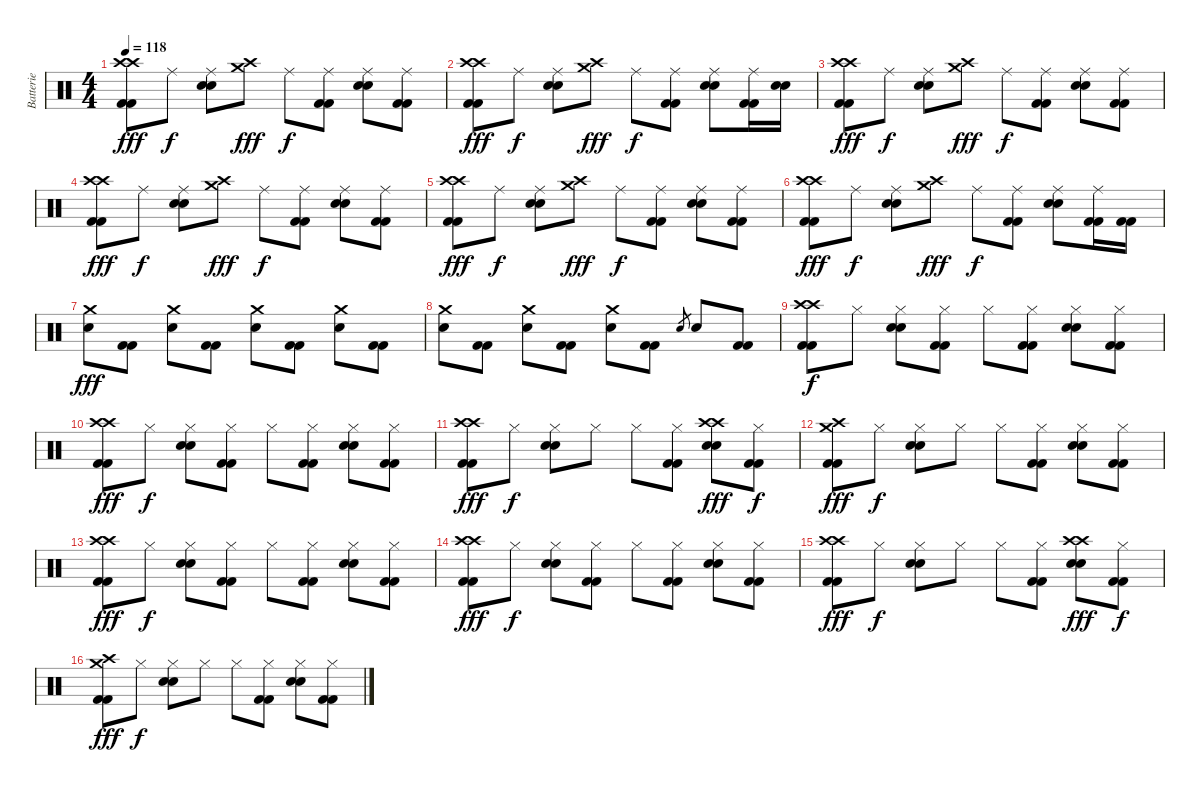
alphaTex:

\track ("Batterie" "Batterie") {instrument percussion}
\staff {score}
\articulation defaults
\ts (4 4)
\tempo 118
\clef neutral
\ks c
("Crash high (hit)" "Crash high (hit)" "Kick (hit) 2" "Kick (hit) 2").8{dy fff} "Ride (middle)".8{dy f} ("Ride (middle)" "Snare (hit) 2" "Snare (hit) 2").8 ("Crash medium (hit)" "Crash high (hit)").8{dy fff} "Ride (middle)".8{dy f} ("Ride (middle)" "Kick (hit) 2" "Kick (hit) 2").8 ("Ride (middle)" "Snare (hit) 2" "Snare (hit) 2").8 ("Ride (middle)" "Kick (hit) 2" "Kick (hit) 2").8 |
("Crash high (hit)" "Crash high (hit)" "Kick (hit) 2" "Kick (hit) 2").8{dy fff} "Ride (middle)".8{dy f} ("Ride (middle)" "Snare (hit) 2" "Snare (hit) 2").8 ("Crash medium (hit)" "Crash high (hit)").8{dy fff} "Ride (middle)".8{dy f} ("Ride (middle)" "Kick (hit) 2" "Kick (hit) 2").8 ("Ride (middle)" "Snare (hit) 2" "Snare (hit) 2").8 ("Ride (middle)" "Kick (hit) 2" "Kick (hit) 2").16 ("Snare (hit) 2" "Snare (hit) 2").16 |
("Crash high (hit)" "Crash high (hit)" "Kick (hit) 2" "Kick (hit) 2").8{dy fff} "Ride (middle)".8{dy f} ("Ride (middle)" "Snare (hit) 2" "Snare (hit) 2").8 ("Crash medium (hit)" "Crash high (hit)").8{dy fff} "Ride (middle)".8{dy f} ("Ride (middle)" "Kick (hit) 2" "Kick (hit) 2").8 ("Ride (middle)" "Snare (hit) 2" "Snare (hit) 2").8 ("Ride (middle)" "Kick (hit) 2" "Kick (hit) 2").8 |
("Crash high (hit)" "Crash high (hit)" "Kick (hit) 2" "Kick (hit) 2").8{dy fff} "Ride (middle)".8{dy f} ("Ride (middle)" "Snare (hit) 2" "Snare (hit) 2").8 ("Crash medium (hit)" "Crash high (hit)").8{dy fff} "Ride (middle)".8{dy f} ("Ride (middle)" "Kick (hit) 2" "Kick (hit) 2").8 ("Ride (middle)" "Snare (hit) 2" "Snare (hit) 2").8 ("Ride (middle)" "Kick (hit) 2" "Kick (hit) 2").8 |
("Crash high (hit)" "Crash high (hit)" "Kick (hit) 2" "Kick (hit) 2").8{dy fff} "Ride (middle)".8{dy f} ("Ride (middle)" "Snare (hit) 2" "Snare (hit) 2").8 ("Crash medium (hit)" "Crash high (hit)").8{dy fff} "Ride (middle)".8{dy f} ("Ride (middle)" "Kick (hit) 2" "Kick (hit) 2").8 ("Ride (middle)" "Snare (hit) 2" "Snare (hit) 2").8 ("Ride (middle)" "Kick (hit) 2" "Kick (hit) 2").8 |
("Crash high (hit)" "Crash high (hit)" "Kick (hit) 2" "Kick (hit) 2").8{dy fff} "Ride (middle)".8{dy f} ("Ride (middle)" "Snare (hit) 2" "Snare (hit) 2").8 ("Crash medium (hit)" "Crash high (hit)").8{dy fff} "Ride (middle)".8{dy f} ("Ride (middle)" "Kick (hit) 2" "Kick (hit) 2").8 ("Ride (middle)" "Snare (hit) 2" "Snare (hit) 2").8 ("Ride (middle)" "Kick (hit) 2" "Kick (hit) 2").16 ("Kick (hit) 2" "Kick (hit) 2").16 |
("Crash medium (hit)" "Snare (hit) 2").8{dy fff} ("Kick (hit) 2" "Kick (hit) 2").8 ("Crash medium (hit)" "Snare (hit) 2").8 ("Kick (hit) 2" "Kick (hit) 2").8 ("Crash medium (hit)" "Snare (hit) 2").8 ("Kick (hit) 2" "Kick (hit) 2").8 ("Crash medium (hit)" "Snare (hit) 2").8 ("Kick (hit) 2" "Kick (hit) 2").8 |
("Crash medium (hit)" "Snare (hit) 2").8 ("Kick (hit) 2" "Kick (hit) 2").8 ("Crash medium (hit)" "Snare (hit) 2").8 ("Kick (hit) 2" "Kick (hit) 2").8 ("Crash medium (hit)" "Snare (hit) 2").8 ("Kick (hit) 2" "Kick (hit) 2").8 "Snare (hit) 2".8{gr} "Snare (hit) 2".8 ("Kick (hit) 2" "Kick (hit) 2").8 |
("Crash high (hit)" "Crash high (hit)" "Kick (hit) 2" "Kick (hit) 2").8{dy f} "Hi-Hat (closed)".8 ("Hi-Hat (closed)" "Snare (hit) 2" "Snare (hit) 2").8 ("Hi-Hat (closed)" "Kick (hit) 2" "Kick (hit) 2").8 "Hi-Hat (closed)".8 ("Hi-Hat (closed)" "Kick (hit) 2" "Kick (hit) 2").8 ("Hi-Hat (closed)" "Snare (hit) 2" "Snare (hit) 2").8 ("Hi-Hat (closed)" "Kick (hit) 2" "Kick (hit) 2").8 |
("Crash high (hit)" "Crash high (hit)" "Kick (hit) 2" "Kick (hit) 2").8{dy fff} "Hi-Hat (closed)".8{dy f} ("Hi-Hat (closed)" "Snare (hit) 2" "Snare (hit) 2").8 ("Hi-Hat (closed)" "Kick (hit) 2" "Kick (hit) 2").8 "Hi-Hat (closed)".8 ("Hi-Hat (closed)" "Kick (hit) 2" "Kick (hit) 2").8 ("Hi-Hat (closed)" "Snare (hit) 2" "Snare (hit) 2").8 ("Hi-Hat (closed)" "Kick (hit) 2" "Kick (hit) 2").8 |
("Crash high (hit)" "Crash high (hit)" "Kick (hit) 2" "Kick (hit) 2").8{dy fff} "Hi-Hat (closed)".8{dy f} ("Hi-Hat (closed)" "Snare (hit) 2" "Snare (hit) 2").8 "Hi-Hat (closed)".8 "Hi-Hat (closed)".8 ("Hi-Hat (closed)" "Kick (hit) 2" "Kick (hit) 2").8 ("Crash high (hit)" "Crash high (hit)" "Snare (hit) 2" "Snare (hit) 2").8{dy fff} ("Hi-Hat (closed)" "Kick (hit) 2" "Kick (hit) 2").8{dy f} |
("Crash medium (hit)" "Crash high (hit)" "Kick (hit) 2" "Kick (hit) 2").8{dy fff} "Hi-Hat (closed)".8{dy f} ("Hi-Hat (closed)" "Snare (hit) 2" "Snare (hit) 2").8 "Hi-Hat (closed)".8 "Hi-Hat (closed)".8 ("Hi-Hat (closed)" "Kick (hit) 2" "Kick (hit) 2").8 ("Hi-Hat (closed)" "Snare (hit) 2" "Snare (hit) 2").8 ("Hi-Hat (closed)" "Kick (hit) 2" "Kick (hit) 2").8 |
("Crash high (hit)" "Crash high (hit)" "Kick (hit) 2" "Kick (hit) 2").8{dy fff} "Hi-Hat (closed)".8{dy f} ("Hi-Hat (closed)" "Snare (hit) 2" "Snare (hit) 2").8 ("Hi-Hat (closed)" "Kick (hit) 2" "Kick (hit) 2").8 "Hi-Hat (closed)".8 ("Hi-Hat (closed)" "Kick (hit) 2" "Kick (hit) 2").8 ("Hi-Hat (closed)" "Snare (hit) 2" "Snare (hit) 2").8 ("Hi-Hat (closed)" "Kick (hit) 2" "Kick (hit) 2").8 |
("Crash high (hit)" "Crash high (hit)" "Kick (hit) 2" "Kick (hit) 2").8{dy fff} "Hi-Hat (closed)".8{dy f} ("Hi-Hat (closed)" "Snare (hit) 2" "Snare (hit) 2").8 ("Hi-Hat (closed)" "Kick (hit) 2" "Kick (hit) 2").8 "Hi-Hat (closed)".8 ("Hi-Hat (closed)" "Kick (hit) 2" "Kick (hit) 2").8 ("Hi-Hat (closed)" "Snare (hit) 2" "Snare (hit) 2").8 ("Hi-Hat (closed)" "Kick (hit) 2" "Kick (hit) 2").8 |
("Crash high (hit)" "Crash high (hit)" "Kick (hit) 2" "Kick (hit) 2").8{dy fff} "Hi-Hat (closed)".8{dy f} ("Hi-Hat (closed)" "Snare (hit) 2" "Snare (hit) 2").8 "Hi-Hat (closed)".8 "Hi-Hat (closed)".8 ("Hi-Hat (closed)" "Kick (hit) 2" "Kick (hit) 2").8 ("Crash high (hit)" "Crash high (hit)" "Snare (hit) 2" "Snare (hit) 2").8{dy fff} ("Hi-Hat (closed)" "Kick (hit) 2" "Kick (hit) 2").8{dy f} |
("Crash medium (hit)" "Crash high (hit)" "Kick (hit) 2" "Kick (hit) 2").8{dy fff} "Hi-Hat (closed)".8{dy f} ("Hi-Hat (closed)" "Snare (hit) 2" "Snare (hit) 2").8 "Hi-Hat (closed)".8 "Hi-Hat (closed)".8 ("Hi-Hat (closed)" "Kick (hit) 2" "Kick (hit) 2").8 ("Hi-Hat (closed)" "Snare (hit) 2" "Snare (hit) 2").8 ("Hi-Hat (closed)" "Kick (hit) 2" "Kick (hit) 2").8
